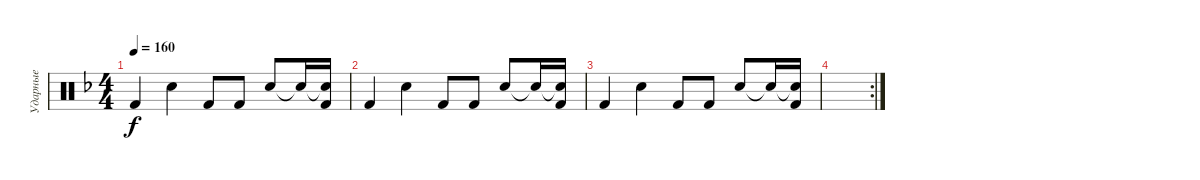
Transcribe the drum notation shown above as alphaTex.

\track ("Ударные" "Ударные") {instrument percussion}
\staff {score}
\articulation defaults
\ts (4 4)
\tempo 160
\clef neutral
\ks dminor "Kick (hit) 2".4{dy f} "Electric Snare (hit)".4 "Kick (hit) 2".8 "Kick (hit) 2".8 "Electric Snare (hit)".8 "Snare (hit)"{t}.16
("Snare (hit)"{t} "Kick (hit) 2").16 |
"Kick (hit) 2".4 "Electric Snare (hit)".4 "Kick (hit) 2".8 "Kick (hit) 2".8 "Electric Snare (hit)".8 "Snare (hit)"{t}.16 ("Snare (hit)"{t} "Kick (hit) 2").16 |
"Kick (hit) 2".4 "Electric Snare (hit)".4 "Kick (hit) 2".8 "Kick (hit) 2".8 "Electric Snare (hit)".8 "Snare (hit)"{t}.16 ("Snare (hit)"{t} "Kick (hit) 2").16 |
\rc 2
